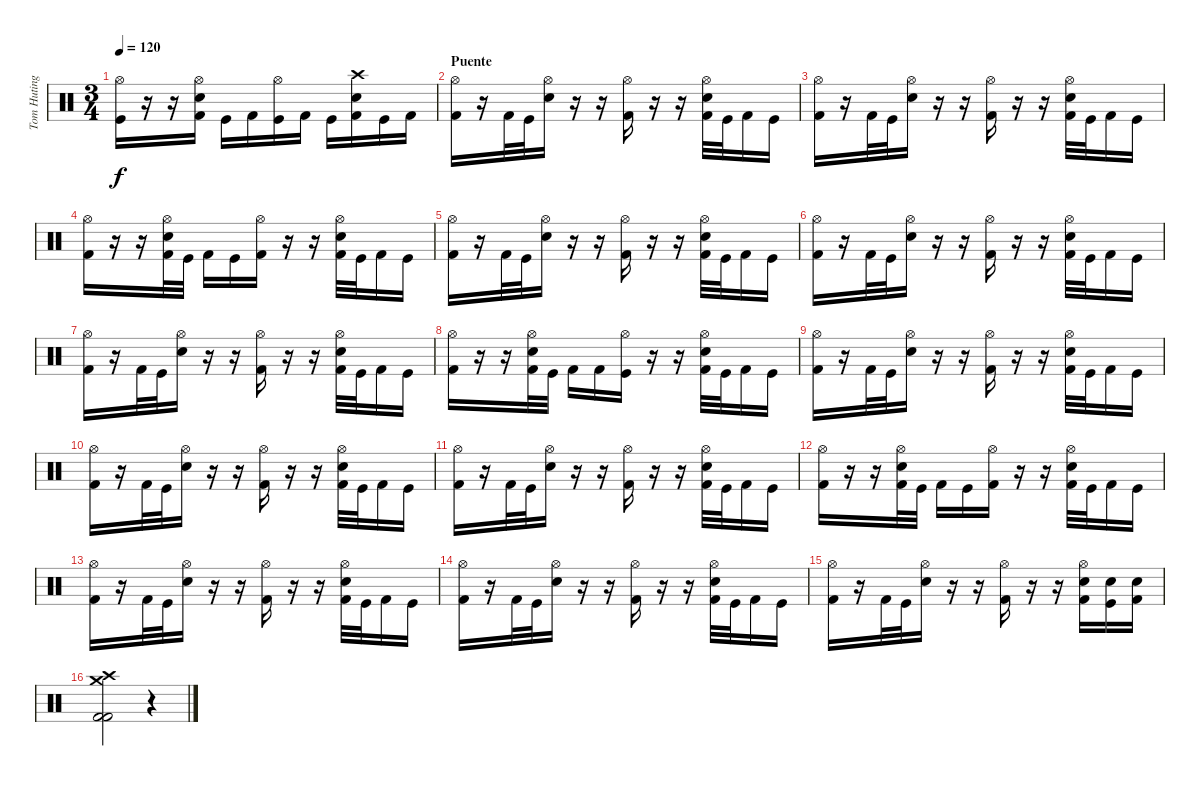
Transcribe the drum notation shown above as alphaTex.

\track ("Tom Huting" "Tom Huting") {instrument percussion}
\staff {score}
\articulation defaults
\ts (3 4)
\tempo 120
\clef neutral
\ks c
("Kick (hit)" "Hi-Hat (open)").16{dy f} r.16 r.16 ("Kick (hit) 2" "Snare (hit) 2" "Hi-Hat (open)").16 "Kick (hit)".16 "Kick (hit) 2".16 ("Kick (hit)" "Hi-Hat (open)").16 "Kick (hit) 2".16 "Kick (hit)".16 ("Kick (hit) 2" "Snare (hit) 2" "Crash high (hit)").16 "Kick (hit)".16 "Kick (hit) 2".16 |
\section ("" "Puente")
("Kick (hit) 2" "Hi-Hat (open)").16 r.16 "Kick (hit) 2".32 "Kick (hit)".32 ("Snare (hit) 2" "Hi-Hat (open)").16 r.16 r.16 ("Kick (hit) 2" "Hi-Hat (open)").16 r.16 r.16 ("Kick (hit) 2" "Snare (hit) 2" "Hi-Hat (open)").32 "Kick (hit)".32 "Kick (hit) 2".16 "Kick (hit)".16 |
("Kick (hit) 2" "Hi-Hat (open)").16 r.16 "Kick (hit) 2".32 "Kick (hit)".32 ("Snare (hit) 2" "Hi-Hat (open)").16 r.16 r.16 ("Kick (hit) 2" "Hi-Hat (open)").16 r.16 r.16 ("Kick (hit) 2" "Snare (hit) 2" "Hi-Hat (open)").32 "Kick (hit)".32 "Kick (hit) 2".16 "Kick (hit)".16 |
("Kick (hit) 2" "Hi-Hat (open)").16 r.16 r.16 ("Kick (hit) 2" "Snare (hit) 2" "Hi-Hat (open)").32 "Kick (hit)".32 "Kick (hit) 2".16 "Kick (hit)".16 ("Kick (hit) 2" "Hi-Hat (open)").16 r.16 r.16 ("Kick (hit) 2" "Snare (hit) 2" "Hi-Hat (open)").32 "Kick (hit)".32 "Kick (hit) 2".16 "Kick (hit)".16 |
("Kick (hit) 2" "Hi-Hat (open)").16 r.16 "Kick (hit) 2".32 "Kick (hit)".32 ("Snare (hit) 2" "Hi-Hat (open)").16 r.16 r.16 ("Kick (hit) 2" "Hi-Hat (open)").16 r.16 r.16 ("Kick (hit) 2" "Snare (hit) 2" "Hi-Hat (open)").32 "Kick (hit)".32 "Kick (hit) 2".16 "Kick (hit)".16 |
("Kick (hit) 2" "Hi-Hat (open)").16 r.16 "Kick (hit) 2".32 "Kick (hit)".32 ("Snare (hit) 2" "Hi-Hat (open)").16 r.16 r.16 ("Kick (hit) 2" "Hi-Hat (open)").16 r.16 r.16 ("Kick (hit) 2" "Snare (hit) 2" "Hi-Hat (open)").32 "Kick (hit)".32 "Kick (hit) 2".16 "Kick (hit)".16 |
("Kick (hit) 2" "Hi-Hat (open)").16 r.16 "Kick (hit) 2".32 "Kick (hit)".32 ("Snare (hit) 2" "Hi-Hat (open)").16 r.16 r.16 ("Kick (hit) 2" "Hi-Hat (open)").16 r.16 r.16 ("Kick (hit) 2" "Snare (hit) 2" "Hi-Hat (open)").32 "Kick (hit)".32 "Kick (hit) 2".16 "Kick (hit)".16 |
("Kick (hit) 2" "Hi-Hat (open)").16 r.16 r.16 ("Kick (hit) 2" "Snare (hit) 2" "Hi-Hat (open)").32 "Kick (hit)".32 "Kick (hit) 2".16 "Kick (hit) 2".16 ("Kick (hit)" "Hi-Hat (open)").16 r.16 r.16 ("Kick (hit) 2" "Snare (hit) 2" "Hi-Hat (open)").32 "Kick (hit)".32 "Kick (hit) 2".16 "Kick (hit)".16 |
("Kick (hit) 2" "Hi-Hat (open)").16 r.16 "Kick (hit) 2".32 "Kick (hit)".32 ("Snare (hit) 2" "Hi-Hat (open)").16 r.16 r.16 ("Kick (hit) 2" "Hi-Hat (open)").16 r.16 r.16 ("Kick (hit) 2" "Snare (hit) 2" "Hi-Hat (open)").32 "Kick (hit)".32 "Kick (hit) 2".16 "Kick (hit)".16 |
("Kick (hit) 2" "Hi-Hat (open)").16 r.16 "Kick (hit) 2".32 "Kick (hit)".32 ("Snare (hit) 2" "Hi-Hat (open)").16 r.16 r.16 ("Kick (hit) 2" "Hi-Hat (open)").16 r.16 r.16 ("Kick (hit) 2" "Snare (hit) 2" "Hi-Hat (open)").32 "Kick (hit)".32 "Kick (hit) 2".16 "Kick (hit)".16 |
("Kick (hit) 2" "Hi-Hat (open)").16 r.16 "Kick (hit) 2".32 "Kick (hit)".32 ("Snare (hit) 2" "Hi-Hat (open)").16 r.16 r.16 ("Kick (hit) 2" "Hi-Hat (open)").16 r.16 r.16 ("Kick (hit) 2" "Snare (hit) 2" "Hi-Hat (open)").32 "Kick (hit)".32 "Kick (hit) 2".16 "Kick (hit)".16 |
("Kick (hit) 2" "Hi-Hat (open)").16 r.16 r.16 ("Kick (hit) 2" "Snare (hit) 2" "Hi-Hat (open)").32 "Kick (hit)".32 "Kick (hit) 2".16 "Kick (hit)".16 ("Kick (hit) 2" "Hi-Hat (open)").16 r.16 r.16 ("Kick (hit) 2" "Snare (hit) 2" "Hi-Hat (open)").32 "Kick (hit)".32 "Kick (hit) 2".16 "Kick (hit)".16 |
("Kick (hit) 2" "Hi-Hat (open)").16 r.16 "Kick (hit) 2".32 "Kick (hit)".32 ("Snare (hit) 2" "Hi-Hat (open)").16 r.16 r.16 ("Kick (hit) 2" "Hi-Hat (open)").16 r.16 r.16 ("Kick (hit) 2" "Snare (hit) 2" "Hi-Hat (open)").32 "Kick (hit)".32 "Kick (hit) 2".16 "Kick (hit)".16 |
("Kick (hit) 2" "Hi-Hat (open)").16 r.16 "Kick (hit) 2".32 "Kick (hit)".32 ("Snare (hit) 2" "Hi-Hat (open)").16 r.16 r.16 ("Kick (hit) 2" "Hi-Hat (open)").16 r.16 r.16 ("Kick (hit) 2" "Snare (hit) 2" "Hi-Hat (open)").32 "Kick (hit)".32 "Kick (hit) 2".16 "Kick (hit)".16 |
("Kick (hit) 2" "Hi-Hat (open)").16 r.16 "Kick (hit) 2".32 "Kick (hit)".32 ("Snare (hit) 2" "Hi-Hat (open)").16 r.16 r.16 ("Kick (hit) 2" "Hi-Hat (open)").16 r.16 r.16 ("Kick (hit) 2" "Snare (hit) 2" "Hi-Hat (open)").16 ("Kick (hit)" "Snare (hit) 2").16 ("Kick (hit) 2" "Snare (hit) 2").16 |
("Kick (hit) 2" "Kick (hit) 2" "Crash medium (hit)" "Crash high (hit)").2 r.4
